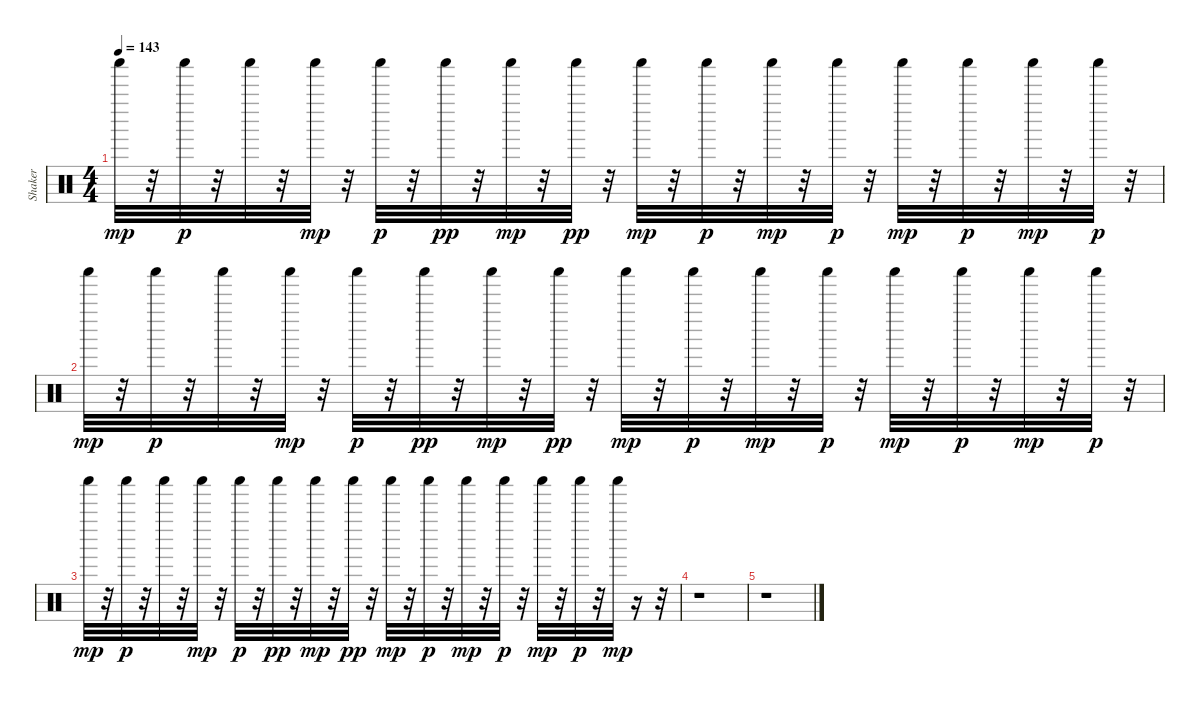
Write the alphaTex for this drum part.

\track ("Shaker   " "Shaker   ") {instrument percussion}
\staff {score}
\articulation defaults
\ts (4 4)
\tempo 143
\clef neutral
\ks c "Shaker (hit)".32{dy mp}
r.32 "Shaker (hit)".32{dy p} r.32 "Shaker (hit)".32 r.32 "Shaker (hit)".32{dy mp} r.32 "Shaker (hit)".32{dy p} r.32 "Shaker (hit)".32{dy pp} r.32 "Shaker (hit)".32{dy mp} r.32 "Shaker (hit)".32{dy pp} r.32 "Shaker (hit)".32{dy mp} r.32 "Shaker (hit)".32{dy p} r.32 "Shaker (hit)".32{dy mp} r.32 "Shaker (hit)".32{dy p} r.32 "Shaker (hit)".32{dy mp} r.32 "Shaker (hit)".32{dy p} r.32 "Shaker (hit)".32{dy mp} r.32 "Shaker (hit)".32{dy p} r.32 |
"Shaker (hit)".32{dy mp} r.32 "Shaker (hit)".32{dy p} r.32 "Shaker (hit)".32 r.32 "Shaker (hit)".32{dy mp} r.32 "Shaker (hit)".32{dy p} r.32 "Shaker (hit)".32{dy pp} r.32 "Shaker (hit)".32{dy mp} r.32 "Shaker (hit)".32{dy pp} r.32 "Shaker (hit)".32{dy mp} r.32 "Shaker (hit)".32{dy p} r.32 "Shaker (hit)".32{dy mp} r.32 "Shaker (hit)".32{dy p} r.32 "Shaker (hit)".32{dy mp} r.32 "Shaker (hit)".32{dy p} r.32 "Shaker (hit)".32{dy mp} r.32 "Shaker (hit)".32{dy p} r.32 |
"Shaker (hit)".32{dy mp} r.32 "Shaker (hit)".32{dy p} r.32 "Shaker (hit)".32 r.32 "Shaker (hit)".32{dy mp} r.32 "Shaker (hit)".32{dy p} r.32 "Shaker (hit)".32{dy pp} r.32 "Shaker (hit)".32{dy mp} r.32 "Shaker (hit)".32{dy pp} r.32 "Shaker (hit)".32{dy mp} r.32 "Shaker (hit)".32{dy p} r.32 "Shaker (hit)".32{dy mp} r.32 "Shaker (hit)".32{dy p} r.32 "Shaker (hit)".32{dy mp} r.32 "Shaker (hit)".32{dy p} r.32 "Shaker (hit)".32{dy mp} r.16 r.32 |
r.1 |
r.1
